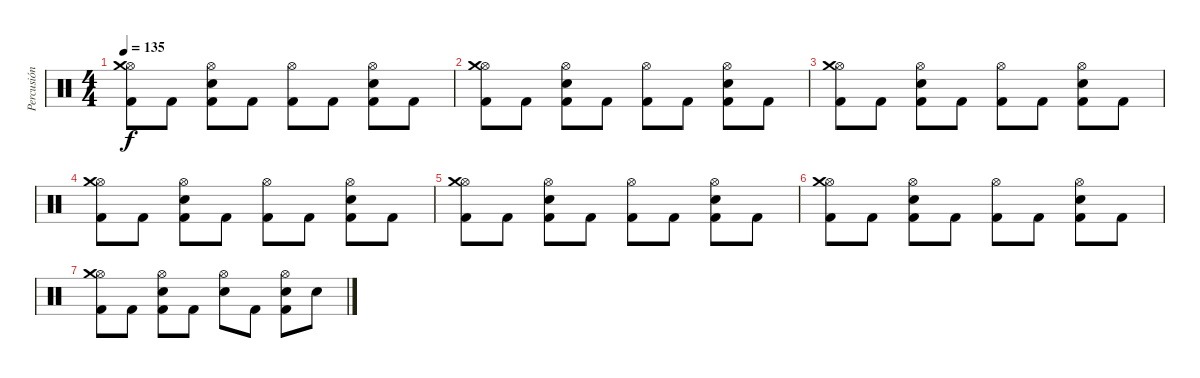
\track ("Percusión" "Percusión") {instrument percussion}
\staff {score}
\articulation defaults
\ts (4 4)
\tempo 135
\clef neutral
\ks c
("Hi-Hat (open)" "Kick (hit) 2" "Crash medium (hit)").8{dy f} "Kick (hit) 2".8 ("Hi-Hat (open)" "Electric Snare (hit)" "Kick (hit) 2").8 "Kick (hit) 2".8 ("Hi-Hat (open)" "Kick (hit) 2").8 "Kick (hit) 2".8 ("Hi-Hat (open)" "Electric Snare (hit)" "Kick (hit) 2").8 "Kick (hit) 2".8 |
("Hi-Hat (open)" "Kick (hit) 2" "Crash medium (hit)").8 "Kick (hit) 2".8 ("Hi-Hat (open)" "Electric Snare (hit)" "Kick (hit) 2").8 "Kick (hit) 2".8 ("Hi-Hat (open)" "Kick (hit) 2").8 "Kick (hit) 2".8 ("Hi-Hat (open)" "Electric Snare (hit)" "Kick (hit) 2").8 "Kick (hit) 2".8 |
("Hi-Hat (open)" "Kick (hit) 2" "Crash medium (hit)").8 "Kick (hit) 2".8 ("Hi-Hat (open)" "Electric Snare (hit)" "Kick (hit) 2").8 "Kick (hit) 2".8 ("Hi-Hat (open)" "Kick (hit) 2").8 "Kick (hit) 2".8 ("Hi-Hat (open)" "Electric Snare (hit)" "Kick (hit) 2").8 "Kick (hit) 2".8 |
("Hi-Hat (open)" "Kick (hit) 2" "Crash medium (hit)").8 "Kick (hit) 2".8 ("Hi-Hat (open)" "Electric Snare (hit)" "Kick (hit) 2").8 "Kick (hit) 2".8 ("Hi-Hat (open)" "Kick (hit) 2").8 "Kick (hit) 2".8 ("Hi-Hat (open)" "Electric Snare (hit)" "Kick (hit) 2").8 "Kick (hit) 2".8 |
("Hi-Hat (open)" "Kick (hit) 2" "Crash medium (hit)").8 "Kick (hit) 2".8 ("Hi-Hat (open)" "Electric Snare (hit)" "Kick (hit) 2").8 "Kick (hit) 2".8 ("Hi-Hat (open)" "Kick (hit) 2").8 "Kick (hit) 2".8 ("Hi-Hat (open)" "Electric Snare (hit)" "Kick (hit) 2").8 "Kick (hit) 2".8 |
("Hi-Hat (open)" "Kick (hit) 2" "Crash medium (hit)").8 "Kick (hit) 2".8 ("Hi-Hat (open)" "Electric Snare (hit)" "Kick (hit) 2").8 "Kick (hit) 2".8 ("Hi-Hat (open)" "Kick (hit) 2").8 "Kick (hit) 2".8 ("Hi-Hat (open)" "Electric Snare (hit)" "Kick (hit) 2").8 "Kick (hit) 2".8 |
("Hi-Hat (open)" "Kick (hit) 2" "Crash medium (hit)").8 "Kick (hit) 2".8 ("Hi-Hat (open)" "Electric Snare (hit)" "Kick (hit) 2").8 "Kick (hit) 2".8 ("Hi-Hat (open)" "Electric Snare (hit)").8 "Kick (hit) 2".8 ("Hi-Hat (open)" "Electric Snare (hit)" "Kick (hit) 2").8 "Electric Snare (hit)".8
